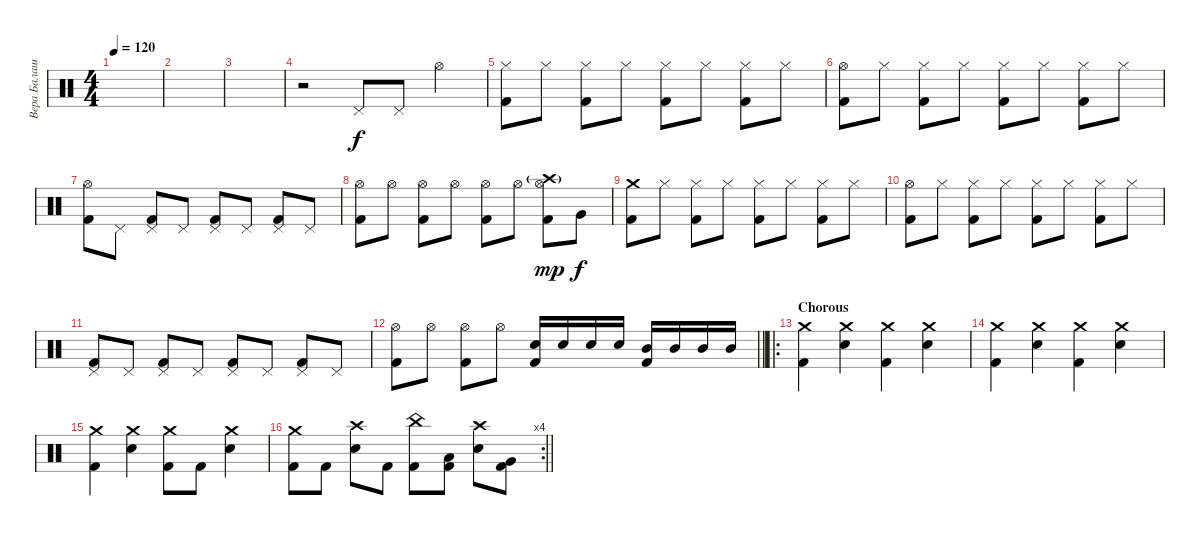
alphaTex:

\track ("Вера Балашевич" "Вера Балаш") {instrument percussion}
\staff {score}
\articulation defaults
\ts (4 4)
\tempo 120
\clef neutral
\ks c
|
|
|
r.2 "Pedal Hi-Hat (hit)".8 "Pedal Hi-Hat (hit)".8 "Hi-Hat (open)".4 |
("Hi-Hat (closed)" "Kick (hit) 2").8 "Hi-Hat (closed)".8 ("Hi-Hat (closed)" "Kick (hit) 2").8 "Hi-Hat (closed)".8 ("Hi-Hat (closed)" "Kick (hit) 2").8 "Hi-Hat (closed)".8 ("Hi-Hat (closed)" "Kick (hit) 2").8 "Hi-Hat (closed)".8 |
("Hi-Hat (open)" "Kick (hit) 2").8 "Hi-Hat (closed)".8 ("Hi-Hat (closed)" "Kick (hit) 2").8 "Hi-Hat (closed)".8 ("Hi-Hat (closed)" "Kick (hit) 2").8 "Hi-Hat (closed)".8 ("Hi-Hat (closed)" "Kick (hit) 2").8 "Hi-Hat (closed)".8 |
("Hi-Hat (open)" "Kick (hit) 2").8 "Pedal Hi-Hat (hit)".8 ("Pedal Hi-Hat (hit)" "Kick (hit) 2").8 "Pedal Hi-Hat (hit)".8 ("Pedal Hi-Hat (hit)" "Kick (hit) 2").8 "Pedal Hi-Hat (hit)".8 ("Pedal Hi-Hat (hit)" "Kick (hit) 2").8 "Pedal Hi-Hat (hit)".8 |
("Hi-Hat (open)" "Kick (hit) 2").8 "Hi-Hat (open)".8 ("Hi-Hat (open)" "Kick (hit) 2").8 "Hi-Hat (open)".8 ("Hi-Hat (open)" "Kick (hit) 2").8 "Hi-Hat (open)".8 ("Hi-Hat (open)" "Crash high (hit)"{g} "Kick (hit) 2").8{dy mp} "Very Low Tom (hit)".8{dy f} |
("Crash medium (hit)" "Kick (hit) 2").8 "Hi-Hat (closed)".8 ("Hi-Hat (closed)" "Kick (hit) 2").8 "Hi-Hat (closed)".8 ("Hi-Hat (closed)" "Kick (hit) 2").8 "Hi-Hat (closed)".8 ("Hi-Hat (closed)" "Kick (hit) 2").8 "Hi-Hat (closed)".8 |
("Hi-Hat (open)" "Kick (hit) 2").8 "Hi-Hat (closed)".8 ("Hi-Hat (closed)" "Kick (hit) 2").8 "Hi-Hat (closed)".8 ("Hi-Hat (closed)" "Kick (hit) 2").8 "Hi-Hat (closed)".8 ("Hi-Hat (closed)" "Kick (hit) 2").8 "Hi-Hat (closed)".8 |
("Pedal Hi-Hat (hit)" "Kick (hit) 2").8 "Pedal Hi-Hat (hit)".8 ("Pedal Hi-Hat (hit)" "Kick (hit) 2").8 "Pedal Hi-Hat (hit)".8 ("Pedal Hi-Hat (hit)" "Kick (hit) 2").8 "Pedal Hi-Hat (hit)".8 ("Pedal Hi-Hat (hit)" "Kick (hit) 2").8 "Pedal Hi-Hat (hit)".8 |
\barLineRight lightlight
("Hi-Hat (open)" "Kick (hit) 2").8 "Hi-Hat (open)".8 ("Hi-Hat (open)" "Kick (hit) 2").8 "Hi-Hat (open)".8 ("Electric Snare (hit)" "Kick (hit) 2").16 "Electric Snare (hit)".16 "Electric Snare (hit)".16 "Electric Snare (hit)".16 ("Mid Tom (hit)" "Kick (hit) 2").16 "Mid Tom (hit)".16 "Mid Tom (hit)".16 "Mid Tom (hit)".16 |
\ro
\section ("" "Chorous")
("Crash medium (hit)" "Kick (hit) 2").4 ("Crash medium (hit)" "Electric Snare (hit)").4 ("Crash medium (hit)" "Kick (hit) 2").4 ("Crash medium (hit)" "Electric Snare (hit)").4 |
("Crash medium (hit)" "Kick (hit) 2").4 ("Crash medium (hit)" "Electric Snare (hit)").4 ("Crash medium (hit)" "Kick (hit) 2").4 ("Crash medium (hit)" "Electric Snare (hit)").4 |
("Crash medium (hit)" "Kick (hit) 2").4 ("Crash medium (hit)" "Electric Snare (hit)").4 ("Crash medium (hit)" "Kick (hit) 2").8 "Kick (hit) 2".8 ("Crash medium (hit)" "Electric Snare (hit)").4 |
\rc 4
\barLineRight lightlight
("Crash medium (hit)" "Kick (hit) 2").8 "Kick (hit) 2".8 ("Crash high (hit)" "Electric Snare (hit)").8 "Kick (hit) 2".8 ("China (hit)" "Kick (hit) 2").8 ("Low Tom (hit)" "Kick (hit) 2").8 ("Crash high (hit)" "Electric Snare (hit)").8 ("Very Low Tom (hit)" "Kick (hit) 2").8
